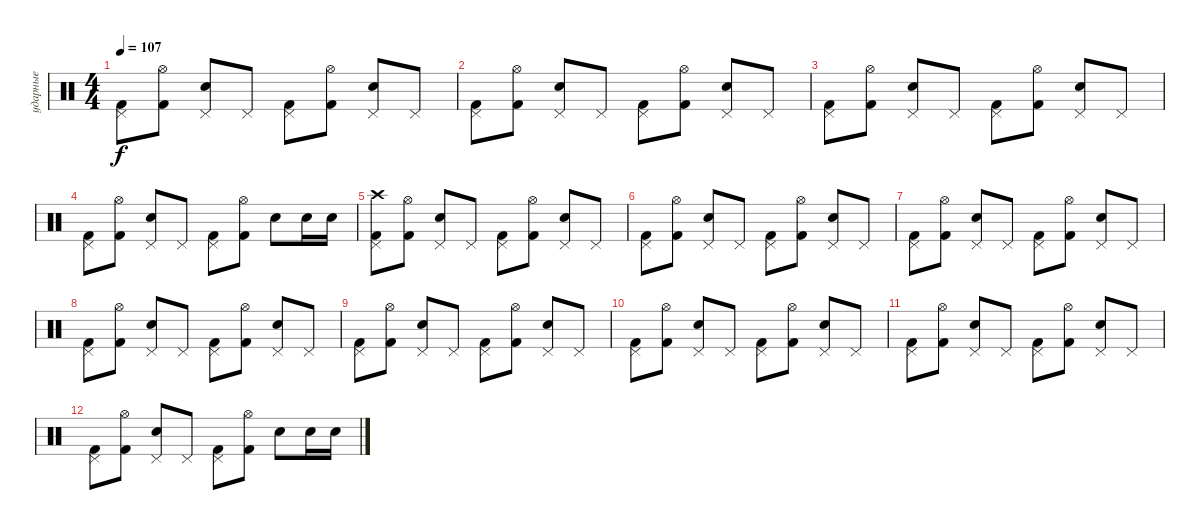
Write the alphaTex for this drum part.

\track ("ударные" "ударные") {instrument percussion}
\staff {score}
\articulation defaults
\ts (4 4)
\tempo 107
\clef neutral
\ks c
("Kick (hit) 2" "Pedal Hi-Hat (hit)").8{dy f} ("Kick (hit) 2" "Hi-Hat (open)").8 ("Pedal Hi-Hat (hit)" "Snare (hit) 2").8 "Pedal Hi-Hat (hit)".8 ("Kick (hit) 2" "Pedal Hi-Hat (hit)").8 ("Kick (hit) 2" "Hi-Hat (open)").8 ("Pedal Hi-Hat (hit)" "Snare (hit) 2").8 "Pedal Hi-Hat (hit)".8 |
("Kick (hit) 2" "Pedal Hi-Hat (hit)").8 ("Kick (hit) 2" "Hi-Hat (open)").8 ("Pedal Hi-Hat (hit)" "Snare (hit) 2").8 "Pedal Hi-Hat (hit)".8 ("Kick (hit) 2" "Pedal Hi-Hat (hit)").8 ("Kick (hit) 2" "Hi-Hat (open)").8 ("Pedal Hi-Hat (hit)" "Snare (hit) 2").8 "Pedal Hi-Hat (hit)".8 |
("Kick (hit) 2" "Pedal Hi-Hat (hit)").8 ("Kick (hit) 2" "Hi-Hat (open)").8 ("Pedal Hi-Hat (hit)" "Snare (hit) 2").8 "Pedal Hi-Hat (hit)".8 ("Kick (hit) 2" "Pedal Hi-Hat (hit)").8 ("Kick (hit) 2" "Hi-Hat (open)").8 ("Pedal Hi-Hat (hit)" "Snare (hit) 2").8 "Pedal Hi-Hat (hit)".8 |
("Kick (hit) 2" "Pedal Hi-Hat (hit)").8 ("Kick (hit) 2" "Hi-Hat (open)").8 ("Pedal Hi-Hat (hit)" "Snare (hit) 2").8 "Pedal Hi-Hat (hit)".8 ("Kick (hit) 2" "Pedal Hi-Hat (hit)").8 ("Kick (hit) 2" "Hi-Hat (open)").8 "Snare (hit) 2".8 "Snare (hit) 2".16 "Snare (hit) 2".16 |
("Kick (hit) 2" "Pedal Hi-Hat (hit)" "Crash high (hit)").8 ("Kick (hit) 2" "Hi-Hat (open)").8 ("Pedal Hi-Hat (hit)" "Snare (hit) 2").8 "Pedal Hi-Hat (hit)".8 ("Kick (hit) 2" "Pedal Hi-Hat (hit)").8 ("Kick (hit) 2" "Hi-Hat (open)").8 ("Pedal Hi-Hat (hit)" "Snare (hit) 2").8 "Pedal Hi-Hat (hit)".8 |
("Kick (hit) 2" "Pedal Hi-Hat (hit)").8 ("Kick (hit) 2" "Hi-Hat (open)").8 ("Pedal Hi-Hat (hit)" "Snare (hit) 2").8 "Pedal Hi-Hat (hit)".8 ("Kick (hit) 2" "Pedal Hi-Hat (hit)").8 ("Kick (hit) 2" "Hi-Hat (open)").8 ("Pedal Hi-Hat (hit)" "Snare (hit) 2").8 "Pedal Hi-Hat (hit)".8 |
("Kick (hit) 2" "Pedal Hi-Hat (hit)").8 ("Kick (hit) 2" "Hi-Hat (open)").8 ("Pedal Hi-Hat (hit)" "Snare (hit) 2").8 "Pedal Hi-Hat (hit)".8 ("Kick (hit) 2" "Pedal Hi-Hat (hit)").8 ("Kick (hit) 2" "Hi-Hat (open)").8 ("Pedal Hi-Hat (hit)" "Snare (hit) 2").8 "Pedal Hi-Hat (hit)".8 |
("Kick (hit) 2" "Pedal Hi-Hat (hit)").8 ("Kick (hit) 2" "Hi-Hat (open)").8 ("Pedal Hi-Hat (hit)" "Snare (hit) 2").8 "Pedal Hi-Hat (hit)".8 ("Kick (hit) 2" "Pedal Hi-Hat (hit)").8 ("Kick (hit) 2" "Hi-Hat (open)").8 ("Pedal Hi-Hat (hit)" "Snare (hit) 2").8 "Pedal Hi-Hat (hit)".8 |
("Kick (hit) 2" "Pedal Hi-Hat (hit)").8 ("Kick (hit) 2" "Hi-Hat (open)").8 ("Pedal Hi-Hat (hit)" "Snare (hit) 2").8 "Pedal Hi-Hat (hit)".8 ("Kick (hit) 2" "Pedal Hi-Hat (hit)").8 ("Kick (hit) 2" "Hi-Hat (open)").8 ("Pedal Hi-Hat (hit)" "Snare (hit) 2").8 "Pedal Hi-Hat (hit)".8 |
("Kick (hit) 2" "Pedal Hi-Hat (hit)").8 ("Kick (hit) 2" "Hi-Hat (open)").8 ("Pedal Hi-Hat (hit)" "Snare (hit) 2").8 "Pedal Hi-Hat (hit)".8 ("Kick (hit) 2" "Pedal Hi-Hat (hit)").8 ("Kick (hit) 2" "Hi-Hat (open)").8 ("Pedal Hi-Hat (hit)" "Snare (hit) 2").8 "Pedal Hi-Hat (hit)".8 |
("Kick (hit) 2" "Pedal Hi-Hat (hit)").8 ("Kick (hit) 2" "Hi-Hat (open)").8 ("Pedal Hi-Hat (hit)" "Snare (hit) 2").8 "Pedal Hi-Hat (hit)".8 ("Kick (hit) 2" "Pedal Hi-Hat (hit)").8 ("Kick (hit) 2" "Hi-Hat (open)").8 ("Pedal Hi-Hat (hit)" "Snare (hit) 2").8 "Pedal Hi-Hat (hit)".8 |
("Kick (hit) 2" "Pedal Hi-Hat (hit)").8 ("Kick (hit) 2" "Hi-Hat (open)").8 ("Pedal Hi-Hat (hit)" "Snare (hit) 2").8 "Pedal Hi-Hat (hit)".8 ("Kick (hit) 2" "Pedal Hi-Hat (hit)").8 ("Kick (hit) 2" "Hi-Hat (open)").8 "Snare (hit) 2".8 "Snare (hit) 2".16 "Snare (hit) 2".16
